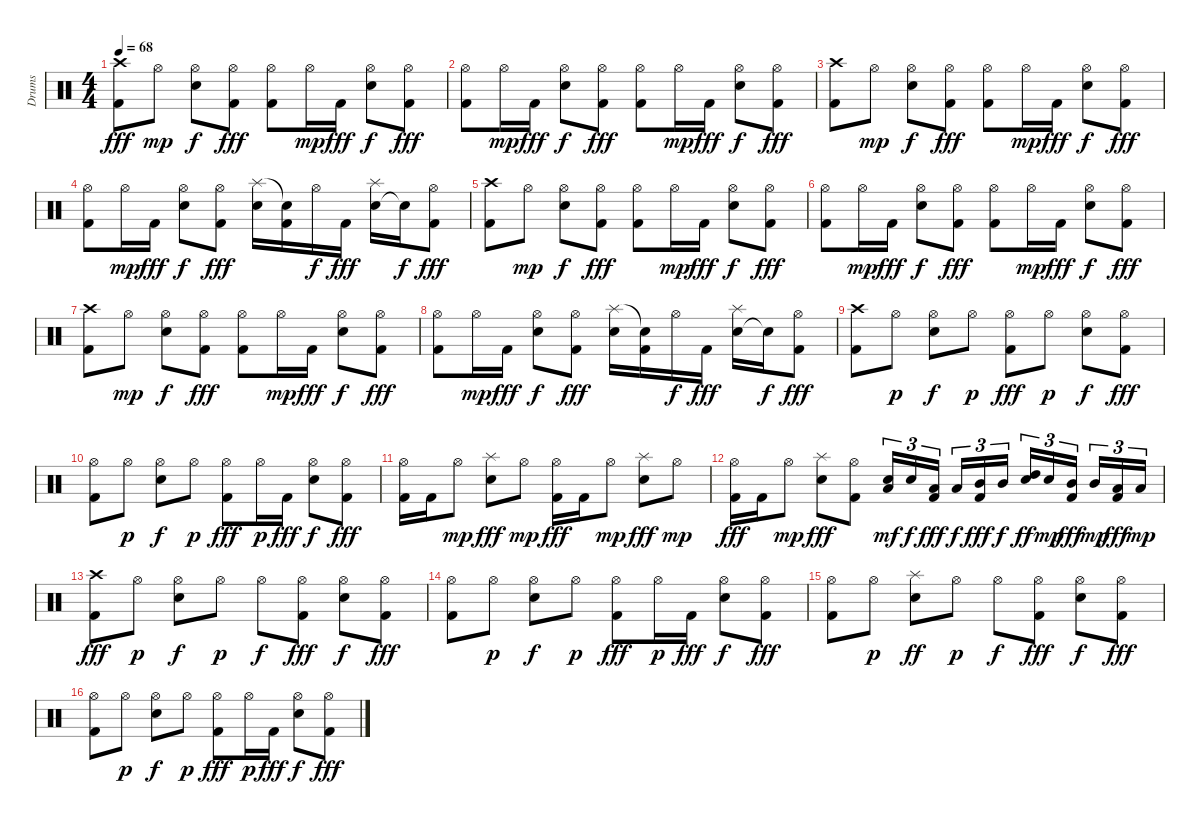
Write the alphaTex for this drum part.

\track ("Drums" "Drums") {instrument percussion}
\staff {score}
\articulation defaults
\ts (4 4)
\tempo 68
\clef neutral
\ks c
("Kick (hit) 2" "Crash high (hit)").8{dy fff} "Hi-Hat (open)".8{dy mp} ("Hi-Hat (open)" "Snare (hit) 2").8{dy f} ("Hi-Hat (open)" "Kick (hit) 2").8{dy fff} ("Hi-Hat (open)" "Kick (hit) 2").8 "Hi-Hat (open)".16{dy mp} "Kick (hit) 2".16{dy fff} ("Hi-Hat (open)" "Snare (hit) 2").8{dy f} ("Hi-Hat (open)" "Kick (hit) 2").8{dy fff} |
("Hi-Hat (open)" "Kick (hit) 2").8 "Hi-Hat (open)".16{dy mp} "Kick (hit) 2".16{dy fff} ("Hi-Hat (open)" "Snare (hit) 2").8{dy f} ("Hi-Hat (open)" "Kick (hit) 2").8{dy fff} ("Hi-Hat (open)" "Kick (hit) 2").8 "Hi-Hat (open)".16{dy mp} "Kick (hit) 2".16{dy fff} ("Hi-Hat (open)" "Snare (hit) 2").8{dy f} ("Hi-Hat (open)" "Kick (hit) 2").8{dy fff} |
("Kick (hit) 2" "Crash high (hit)").8 "Hi-Hat (open)".8{dy mp} ("Hi-Hat (open)" "Snare (hit) 2").8{dy f} ("Hi-Hat (open)" "Kick (hit) 2").8{dy fff} ("Hi-Hat (open)" "Kick (hit) 2").8 "Hi-Hat (open)".16{dy mp} "Kick (hit) 2".16{dy fff} ("Hi-Hat (open)" "Snare (hit) 2").8{dy f} ("Hi-Hat (open)" "Kick (hit) 2").8{dy fff} |
("Hi-Hat (open)" "Kick (hit) 2").8 "Hi-Hat (open)".16{dy mp} "Kick (hit) 2".16{dy fff} ("Hi-Hat (open)" "Snare (hit) 2").8{dy f} ("Hi-Hat (open)" "Kick (hit) 2").8{dy fff} ("Snare (hit) 2" "Splash (hit)").16 ("Kick (hit) 2" "Snare (hit)"{t}).16 "Hi-Hat (open)".16{dy f} "Kick (hit) 2".16{dy fff} ("Snare (hit) 2" "Splash (hit)").16 "Snare (hit)"{t}.16{dy f} ("Hi-Hat (open)" "Kick (hit) 2").8{dy fff} |
("Kick (hit) 2" "Crash high (hit)").8 "Hi-Hat (open)".8{dy mp} ("Hi-Hat (open)" "Snare (hit) 2").8{dy f} ("Hi-Hat (open)" "Kick (hit) 2").8{dy fff} ("Hi-Hat (open)" "Kick (hit) 2").8 "Hi-Hat (open)".16{dy mp} "Kick (hit) 2".16{dy fff} ("Hi-Hat (open)" "Snare (hit) 2").8{dy f} ("Hi-Hat (open)" "Kick (hit) 2").8{dy fff} |
("Hi-Hat (open)" "Kick (hit) 2").8 "Hi-Hat (open)".16{dy mp} "Kick (hit) 2".16{dy fff} ("Hi-Hat (open)" "Snare (hit) 2").8{dy f} ("Hi-Hat (open)" "Kick (hit) 2").8{dy fff} ("Hi-Hat (open)" "Kick (hit) 2").8 "Hi-Hat (open)".16{dy mp} "Kick (hit) 2".16{dy fff} ("Hi-Hat (open)" "Snare (hit) 2").8{dy f} ("Hi-Hat (open)" "Kick (hit) 2").8{dy fff} |
("Kick (hit) 2" "Crash high (hit)").8 "Hi-Hat (open)".8{dy mp} ("Hi-Hat (open)" "Snare (hit) 2").8{dy f} ("Hi-Hat (open)" "Kick (hit) 2").8{dy fff} ("Hi-Hat (open)" "Kick (hit) 2").8 "Hi-Hat (open)".16{dy mp} "Kick (hit) 2".16{dy fff} ("Hi-Hat (open)" "Snare (hit) 2").8{dy f} ("Hi-Hat (open)" "Kick (hit) 2").8{dy fff} |
("Hi-Hat (open)" "Kick (hit) 2").8 "Hi-Hat (open)".16{dy mp} "Kick (hit) 2".16{dy fff} ("Hi-Hat (open)" "Snare (hit) 2").8{dy f} ("Hi-Hat (open)" "Kick (hit) 2").8{dy fff} ("Snare (hit) 2" "Splash (hit)").16 ("Kick (hit) 2" "Snare (hit)"{t}).16 "Hi-Hat (open)".16{dy f} "Kick (hit) 2".16{dy fff} ("Snare (hit) 2" "Splash (hit)").16 "Snare (hit)"{t}.16{dy f} ("Hi-Hat (open)" "Kick (hit) 2").8{dy fff} |
("Kick (hit) 2" "Crash high (hit)").8 "Hi-Hat (open)".8{dy p} ("Hi-Hat (open)" "Snare (hit) 2").8{dy f} "Hi-Hat (open)".8{dy p} ("Hi-Hat (open)" "Kick (hit) 2").8{dy fff} "Hi-Hat (open)".8{dy p} ("Hi-Hat (open)" "Snare (hit) 2").8{dy f} ("Hi-Hat (open)" "Kick (hit) 2").8{dy fff} |
("Hi-Hat (open)" "Kick (hit) 2").8 "Hi-Hat (open)".8{dy p} ("Hi-Hat (open)" "Snare (hit) 2").8{dy f} "Hi-Hat (open)".8{dy p} ("Hi-Hat (open)" "Kick (hit) 2").8{dy fff} "Hi-Hat (open)".16{dy p} "Kick (hit) 2".16{dy fff} ("Hi-Hat (open)" "Snare (hit) 2").8{dy f} ("Hi-Hat (open)" "Kick (hit) 2").8{dy fff} |
("Hi-Hat (open)" "Kick (hit) 2").16 "Kick (hit) 2".16 "Hi-Hat (open)".8{dy mp} ("Snare (hit) 2" "Splash (hit)").8{dy fff} "Hi-Hat (open)".8{dy mp} ("Hi-Hat (open)" "Kick (hit) 2").16{dy fff} "Kick (hit) 2".16 "Hi-Hat (open)".8{dy mp} ("Snare (hit) 2" "Splash (hit)").8{dy fff} "Hi-Hat (open)".8{dy mp} |
("Hi-Hat (open)" "Kick (hit) 2").16{dy fff} "Kick (hit) 2".16 "Hi-Hat (open)".8{dy mp} ("Snare (hit) 2" "Splash (hit)").8{dy fff} ("Hi-Hat (open)" "Kick (hit) 2").8 ("Snare (hit) 2" "Low Tom (hit)").16{tu (3 2) dy mf} "Snare (hit) 2".16{tu (3 2) dy f} ("Kick (hit) 2" "Low Tom (hit)").16{tu (3 2) dy fff} "Low Tom (hit)".16{tu (3 2) dy f} ("Kick (hit) 2" "Mid Tom (hit)").16{tu (3 2) dy fff} "Mid Tom (hit)".16{tu (3 2) dy f} ("Snare (hit) 2" "High Tom (hit)").16{tu (3 2) dy ff} "Snare (hit) 2".16{tu (3 2) dy mp} ("Kick (hit) 2" "Mid Tom (hit)").16{tu (3 2) dy fff} "Mid Tom (hit)".16{tu (3 2) dy mp} ("Kick (hit) 2" "Low Tom (hit)").16{tu (3 2) dy fff} "Low Tom (hit)".16{tu (3 2) dy mp} |
("Kick (hit) 2" "Crash high (hit)").8{dy fff} "Hi-Hat (open)".8{dy p} ("Hi-Hat (open)" "Snare (hit) 2").8{dy f} "Hi-Hat (open)".8{dy p} "Hi-Hat (open)".8{dy f} ("Hi-Hat (open)" "Kick (hit) 2").8{dy fff} ("Hi-Hat (open)" "Snare (hit) 2").8{dy f} ("Hi-Hat (open)" "Kick (hit) 2").8{dy fff} |
("Hi-Hat (open)" "Kick (hit) 2").8 "Hi-Hat (open)".8{dy p} ("Hi-Hat (open)" "Snare (hit) 2").8{dy f} "Hi-Hat (open)".8{dy p} ("Hi-Hat (open)" "Kick (hit) 2").8{dy fff} "Hi-Hat (open)".16{dy p} "Kick (hit) 2".16{dy fff} ("Hi-Hat (open)" "Snare (hit) 2").8{dy f} ("Hi-Hat (open)" "Kick (hit) 2").8{dy fff} |
("Hi-Hat (open)" "Kick (hit) 2").8 "Hi-Hat (open)".8{dy p} ("Snare (hit) 2" "Splash (hit)").8{dy ff} "Hi-Hat (open)".8{dy p} "Hi-Hat (open)".8{dy f} ("Hi-Hat (open)" "Kick (hit) 2").8{dy fff} ("Hi-Hat (open)" "Snare (hit) 2").8{dy f} ("Hi-Hat (open)" "Kick (hit) 2").8{dy fff} |
("Hi-Hat (open)" "Kick (hit) 2").8 "Hi-Hat (open)".8{dy p} ("Hi-Hat (open)" "Snare (hit) 2").8{dy f} "Hi-Hat (open)".8{dy p} ("Hi-Hat (open)" "Kick (hit) 2").8{dy fff} "Hi-Hat (open)".16{dy p} "Kick (hit) 2".16{dy fff} ("Hi-Hat (open)" "Snare (hit) 2").8{dy f} ("Hi-Hat (open)" "Kick (hit) 2").8{dy fff}
